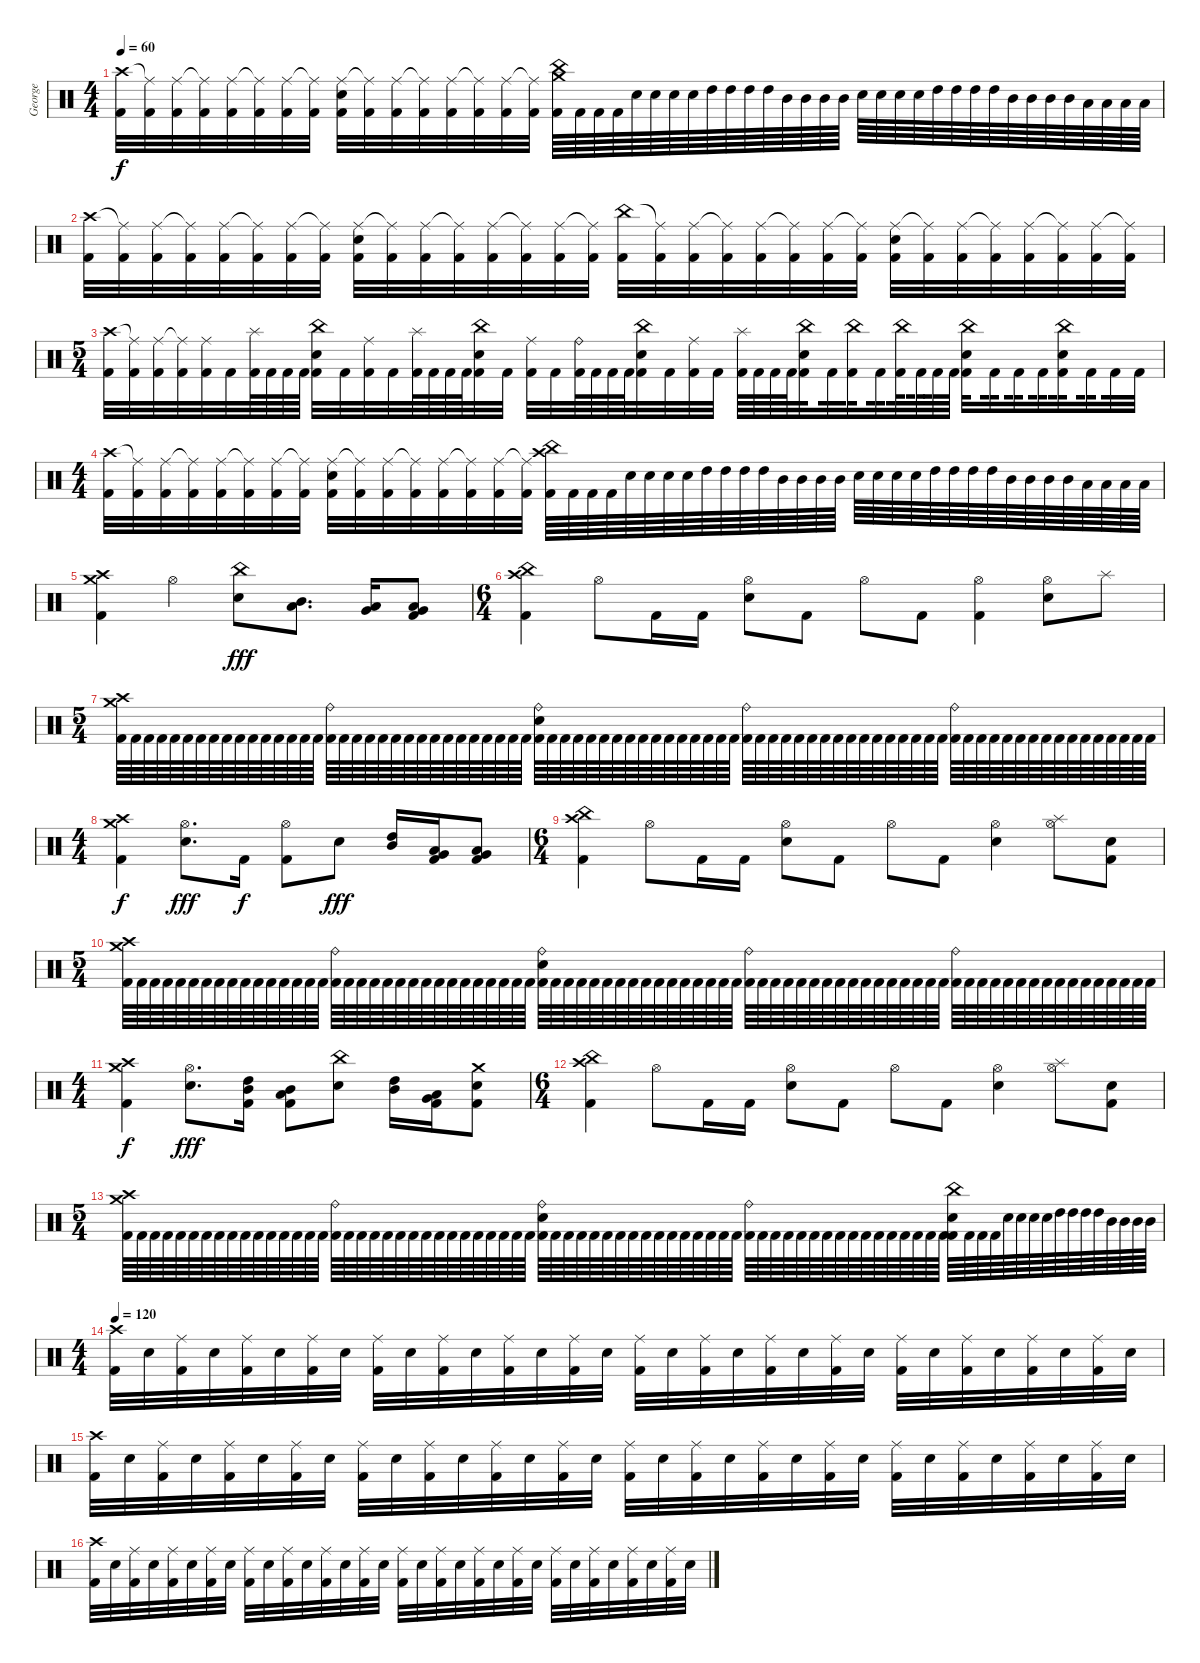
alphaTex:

\track ("George" "George") {instrument percussion}
\staff {score}
\articulation defaults
\ts (4 4)
\tempo 60
\clef neutral
\ks c
("Crash high (hit)" "Kick (hit) 2").32{dy f} ("Ride (middle)"{t} "Kick (hit) 2").32 ("Ride (middle)" "Kick (hit) 2").32 ("Ride (middle)"{t} "Kick (hit) 2").32 ("Ride (middle)" "Kick (hit) 2").32 ("Ride (middle)"{t} "Kick (hit) 2").32 ("Ride (middle)" "Kick (hit) 2").32 ("Ride (middle)"{t} "Kick (hit) 2").32 ("Ride (middle)" "Snare (hit) 2" "Kick (hit) 2").32 ("Ride (middle)"{t} "Kick (hit) 2").32 ("Ride (middle)" "Kick (hit) 2").32 ("Ride (middle)"{t} "Kick (hit) 2").32 ("Ride (middle)" "Kick (hit) 2").32 ("Ride (middle)"{t} "Kick (hit) 2").32 ("Ride (middle)" "Kick (hit) 2").32 ("Ride (middle)"{t} "Kick (hit) 2").32 ("Crash medium (hit)" "China (hit)" "Kick (hit) 2").64 "Kick (hit) 2".64 "Kick (hit) 2".64 "Kick (hit) 2".64 "Snare (hit) 2".64 "Snare (hit) 2".64 "Snare (hit) 2".64 "Snare (hit) 2".64 "High Tom (hit)".64 "High Tom (hit)".64 "High Tom (hit)".64 "High Tom (hit)".64 "Mid Tom (hit)".64 "Mid Tom (hit)".64 "Mid Tom (hit)".64 "Mid Tom (hit)".64 "Snare (hit) 2".64 "Snare (hit) 2".64 "Snare (hit) 2".64 "Snare (hit) 2".64 "High Tom (hit)".64 "High Tom (hit)".64 "High Tom (hit)".64 "High Tom (hit)".64 "Mid Tom (hit)".64 "Mid Tom (hit)".64 "Mid Tom (hit)".64 "Mid Tom (hit)".64 "Low Tom (hit)".64 "Low Tom (hit)".64 "Low Tom (hit)".64 "Low Tom (hit)".64 |
("Crash high (hit)" "Kick (hit) 2").32 ("Ride (middle)"{t} "Kick (hit) 2").32 ("Ride (middle)" "Kick (hit) 2").32 ("Ride (middle)"{t} "Kick (hit) 2").32 ("Ride (middle)" "Kick (hit) 2").32 ("Ride (middle)"{t} "Kick (hit) 2").32 ("Ride (middle)" "Kick (hit) 2").32 ("Ride (middle)"{t} "Kick (hit) 2").32 ("Ride (middle)" "Snare (hit) 2" "Kick (hit) 2").32 ("Ride (middle)"{t} "Kick (hit) 2").32 ("Ride (middle)" "Kick (hit) 2").32 ("Ride (middle)"{t} "Kick (hit) 2").32 ("Ride (middle)" "Kick (hit) 2").32 ("Ride (middle)"{t} "Kick (hit) 2").32 ("Ride (middle)" "Kick (hit) 2").32 ("Ride (middle)"{t} "Kick (hit) 2").32 ("China (hit)" "Kick (hit) 2").32 ("Ride (middle)"{t} "Kick (hit) 2").32 ("Ride (middle)" "Kick (hit) 2").32 ("Ride (middle)"{t} "Kick (hit) 2").32 ("Ride (middle)" "Kick (hit) 2").32 ("Ride (middle)"{t} "Kick (hit) 2").32 ("Ride (middle)" "Kick (hit) 2").32 ("Ride (middle)"{t} "Kick (hit) 2").32 ("Ride (middle)" "Snare (hit) 2" "Kick (hit) 2").32 ("Ride (middle)"{t} "Kick (hit) 2").32 ("Ride (middle)" "Kick (hit) 2").32 ("Ride (middle)"{t} "Kick (hit) 2").32 ("Ride (middle)" "Kick (hit) 2").32 ("Ride (middle)"{t} "Kick (hit) 2").32 ("Ride (middle)" "Kick (hit) 2").32 ("Ride (middle)"{t} "Kick (hit) 2").32 |
\ts (5 4)
("Crash high (hit)" "Kick (hit) 2").32 ("Ride (middle)"{t} "Kick (hit) 2").32 ("Ride (middle)" "Kick (hit) 2").32 ("Ride (middle)"{t} "Kick (hit) 2").32 ("Ride (middle)" "Kick (hit) 2").32 "Kick (hit) 2".32 ("Splash (hit)" "Kick (hit) 2").64 "Kick (hit) 2".64 "Kick (hit) 2".64 "Kick (hit) 2".64 ("China (hit)" "Snare (hit) 2" "Kick (hit) 2").32 "Kick (hit) 2".32 ("Ride (middle)" "Kick (hit) 2").32 "Kick (hit) 2".32 ("Splash (hit)" "Kick (hit) 2").64 "Kick (hit) 2".64 "Kick (hit) 2".64 "Kick (hit) 2".64 ("China (hit)" "Snare (hit) 2" "Kick (hit) 2").32 "Kick (hit) 2".32 ("Ride (middle)" "Kick (hit) 2").32 "Kick (hit) 2".32 ("Ride (bell)" "Kick (hit) 2").64 "Kick (hit) 2".64 "Kick (hit) 2".64 "Kick (hit) 2".64 ("China (hit)" "Snare (hit) 2" "Kick (hit) 2").32 "Kick (hit) 2".32 ("Ride (middle)" "Kick (hit) 2").32 "Kick (hit) 2".32 ("Splash (hit)" "Kick (hit) 2").64 "Kick (hit) 2".64 "Kick (hit) 2".64 "Kick (hit) 2".64{beam splitsecondary} ("China (hit)" "Snare (hit) 2" "Kick (hit) 2").32{beam splitsecondary} "Kick (hit) 2".32{beam splitsecondary} ("China (hit)" "Kick (hit) 2").32{beam splitsecondary} "Kick (hit) 2".32{beam splitsecondary} ("China (hit)" "Kick (hit) 2").64{beam splitsecondary} "Kick (hit) 2".64{beam splitsecondary} "Kick (hit) 2".64 "Kick (hit) 2".64 ("China (hit)" "Snare (hit) 2" "Kick (hit) 2").32{beam splitsecondary} "Kick (hit) 2".32{beam splitsecondary} "Kick (hit) 2".32{beam splitsecondary} "Kick (hit) 2".32{beam splitsecondary} ("China (hit)" "Snare (hit) 2" "Kick (hit) 2").32{beam splitsecondary} "Kick (hit) 2".32{beam splitsecondary} "Kick (hit) 2".32 "Kick (hit) 2".32 |
\ts (4 4)
("Crash high (hit)" "Kick (hit) 2").32 ("Ride (middle)"{t} "Kick (hit) 2").32 ("Ride (middle)" "Kick (hit) 2").32 ("Ride (middle)"{t} "Kick (hit) 2").32 ("Ride (middle)" "Kick (hit) 2").32 ("Ride (middle)"{t} "Kick (hit) 2").32 ("Ride (middle)" "Kick (hit) 2").32 ("Ride (middle)"{t} "Kick (hit) 2").32 ("Ride (middle)" "Snare (hit) 2" "Kick (hit) 2").32 ("Ride (middle)"{t} "Kick (hit) 2").32 ("Ride (middle)" "Kick (hit) 2").32 ("Ride (middle)"{t} "Kick (hit) 2").32 ("Ride (middle)" "Kick (hit) 2").32 ("Ride (middle)"{t} "Kick (hit) 2").32 ("Ride (middle)" "Kick (hit) 2").32 ("Ride (middle)"{t} "Kick (hit) 2").32 ("China (hit)" "Crash high (hit)" "Kick (hit) 2").64 "Kick (hit) 2".64 "Kick (hit) 2".64 "Kick (hit) 2".64 "Snare (hit) 2".64 "Snare (hit) 2".64 "Snare (hit) 2".64 "Snare (hit) 2".64 "High Tom (hit)".64 "High Tom (hit)".64 "High Tom (hit)".64 "High Tom (hit)".64 "Mid Tom (hit)".64 "Mid Tom (hit)".64 "Mid Tom (hit)".64 "Mid Tom (hit)".64 "Snare (hit) 2".64 "Snare (hit) 2".64 "Snare (hit) 2".64 "Snare (hit) 2".64 "High Tom (hit)".64 "High Tom (hit)".64 "High Tom (hit)".64 "High Tom (hit)".64 "Mid Tom (hit)".64 "Mid Tom (hit)".64 "Mid Tom (hit)".64 "Mid Tom (hit)".64 "Low Tom (hit)".64 "Low Tom (hit)".64 "Low Tom (hit)".64 "Low Tom (hit)".64 |
("Crash medium (hit)" "Crash high (hit)" "Kick (hit) 2").4 "Hi-Hat (open)".4 ("Snare (hit) 2" "China (hit)").8{dy fff} ("Mid Tom (hit)" "Low Tom (hit)").8{d} ("Low Floor Tom (hit)" "Very Low Tom (hit)").16 ("Very Low Tom (hit)" "Low Floor Tom (hit)" "Kick (hit) 2").8 |
\ts (6 4)
("Crash high (hit)" "China (hit)" "Kick (hit) 2").4 "Hi-Hat (open)".8 "Kick (hit) 2".16 "Kick (hit) 2".16 ("Hi-Hat (open)" "Snare (hit) 2").8 "Kick (hit) 2".8 "Hi-Hat (open)".8 "Kick (hit) 2".8 ("Hi-Hat (open)" "Kick (hit) 2").4 ("Hi-Hat (open)" "Snare (hit) 2").8 "Splash (hit)".8 |
\ts (5 4)
("Crash high (hit)" "Crash medium (hit)" "Kick (hit) 2").64 "Kick (hit) 2".64 "Kick (hit) 2".64 "Kick (hit) 2".64 "Kick (hit) 2".64 "Kick (hit) 2".64 "Kick (hit) 2".64 "Kick (hit) 2".64 "Kick (hit) 2".64 "Kick (hit) 2".64 "Kick (hit) 2".64 "Kick (hit) 2".64 "Kick (hit) 2".64 "Kick (hit) 2".64 "Kick (hit) 2".64 "Kick (hit) 2".64 ("Ride (bell)" "Kick (hit) 2").64 "Kick (hit) 2".64 "Kick (hit) 2".64 "Kick (hit) 2".64 "Kick (hit) 2".64 "Kick (hit) 2".64 "Kick (hit) 2".64 "Kick (hit) 2".64 "Kick (hit) 2".64 "Kick (hit) 2".64 "Kick (hit) 2".64 "Kick (hit) 2".64 "Kick (hit) 2".64 "Kick (hit) 2".64 "Kick (hit) 2".64 "Kick (hit) 2".64 ("Ride (bell)" "Snare (hit) 2" "Kick (hit) 2").64 "Kick (hit) 2".64 "Kick (hit) 2".64 "Kick (hit) 2".64 "Kick (hit) 2".64 "Kick (hit) 2".64 "Kick (hit) 2".64 "Kick (hit) 2".64 "Kick (hit) 2".64 "Kick (hit) 2".64 "Kick (hit) 2".64 "Kick (hit) 2".64 "Kick (hit) 2".64 "Kick (hit) 2".64 "Kick (hit) 2".64 "Kick (hit) 2".64 ("Ride (bell)" "Kick (hit) 2").64 "Kick (hit) 2".64 "Kick (hit) 2".64 "Kick (hit) 2".64 "Kick (hit) 2".64 "Kick (hit) 2".64 "Kick (hit) 2".64 "Kick (hit) 2".64 "Kick (hit) 2".64 "Kick (hit) 2".64 "Kick (hit) 2".64 "Kick (hit) 2".64 "Kick (hit) 2".64 "Kick (hit) 2".64 "Kick (hit) 2".64 "Kick (hit) 2".64 ("Ride (bell)" "Kick (hit) 2").64 "Kick (hit) 2".64 "Kick (hit) 2".64 "Kick (hit) 2".64 "Kick (hit) 2".64 "Kick (hit) 2".64 "Kick (hit) 2".64 "Kick (hit) 2".64 "Kick (hit) 2".64 "Kick (hit) 2".64 "Kick (hit) 2".64 "Kick (hit) 2".64 "Kick (hit) 2".64 "Kick (hit) 2".64 "Kick (hit) 2".64 "Kick (hit) 2".64 |
\ts (4 4)
("Crash medium (hit)" "Crash high (hit)" "Kick (hit) 2").4{dy f} ("Hi-Hat (open)" "Snare (hit) 2").8{d dy fff} "Kick (hit) 2".16{dy f} ("Hi-Hat (open)" "Kick (hit) 2").8 "Snare (hit) 2".8{dy fff} ("High Tom (hit)" "Mid Tom (hit)").16 ("Very Low Tom (hit)" "Low Tom (hit)" "Kick (hit) 2").16 ("Very Low Tom (hit)" "Low Tom (hit)" "Kick (hit) 2").8 |
\ts (6 4)
("Crash high (hit)" "China (hit)" "Kick (hit) 2").4 "Hi-Hat (open)".8 "Kick (hit) 2".16 "Kick (hit) 2".16 ("Hi-Hat (open)" "Snare (hit) 2").8 "Kick (hit) 2".8 "Hi-Hat (open)".8 "Kick (hit) 2".8 ("Hi-Hat (open)" "Snare (hit) 2").4 ("Hi-Hat (open)" "Splash (hit)").8 ("Snare (hit)" "Kick (hit) 2").8 |
\ts (5 4)
("Crash high (hit)" "Crash medium (hit)" "Kick (hit) 2").64 "Kick (hit) 2".64 "Kick (hit) 2".64 "Kick (hit) 2".64 "Kick (hit) 2".64 "Kick (hit) 2".64 "Kick (hit) 2".64 "Kick (hit) 2".64 "Kick (hit) 2".64 "Kick (hit) 2".64 "Kick (hit) 2".64 "Kick (hit) 2".64 "Kick (hit) 2".64 "Kick (hit) 2".64 "Kick (hit) 2".64 "Kick (hit) 2".64 ("Ride (bell)" "Kick (hit) 2").64 "Kick (hit) 2".64 "Kick (hit) 2".64 "Kick (hit) 2".64 "Kick (hit) 2".64 "Kick (hit) 2".64 "Kick (hit) 2".64 "Kick (hit) 2".64 "Kick (hit) 2".64 "Kick (hit) 2".64 "Kick (hit) 2".64 "Kick (hit) 2".64 "Kick (hit) 2".64 "Kick (hit) 2".64 "Kick (hit) 2".64 "Kick (hit) 2".64 ("Ride (bell)" "Snare (hit) 2" "Kick (hit) 2").64 "Kick (hit) 2".64 "Kick (hit) 2".64 "Kick (hit) 2".64 "Kick (hit) 2".64 "Kick (hit) 2".64 "Kick (hit) 2".64 "Kick (hit) 2".64 "Kick (hit) 2".64 "Kick (hit) 2".64 "Kick (hit) 2".64 "Kick (hit) 2".64 "Kick (hit) 2".64 "Kick (hit) 2".64 "Kick (hit) 2".64 "Kick (hit) 2".64 ("Ride (bell)" "Kick (hit) 2").64 "Kick (hit) 2".64 "Kick (hit) 2".64 "Kick (hit) 2".64 "Kick (hit) 2".64 "Kick (hit) 2".64 "Kick (hit) 2".64 "Kick (hit) 2".64 "Kick (hit) 2".64 "Kick (hit) 2".64 "Kick (hit) 2".64 "Kick (hit) 2".64 "Kick (hit) 2".64 "Kick (hit) 2".64 "Kick (hit) 2".64 "Kick (hit) 2".64 ("Ride (bell)" "Kick (hit) 2").64 "Kick (hit) 2".64 "Kick (hit) 2".64 "Kick (hit) 2".64 "Kick (hit) 2".64 "Kick (hit) 2".64 "Kick (hit) 2".64 "Kick (hit) 2".64 "Kick (hit) 2".64 "Kick (hit) 2".64 "Kick (hit) 2".64 "Kick (hit) 2".64 "Kick (hit) 2".64 "Kick (hit) 2".64 "Kick (hit) 2".64 "Kick (hit) 2".64 |
\ts (4 4)
("Crash medium (hit)" "Crash high (hit)" "Kick (hit) 2").4{dy f} ("Hi-Hat (open)" "Snare (hit) 2").8{d dy fff} ("Mid Tom (hit)" "High Tom (hit)" "Kick (hit) 2").16 ("Low Tom (hit)" "Mid Tom (hit)" "Kick (hit) 2").8 ("China (hit)" "Snare (hit) 2").8 ("High Tom (hit)" "Mid Tom (hit)").16 ("Very Low Tom (hit)" "Low Tom (hit)" "Kick (hit) 2").16 ("Snare (hit) 2" "Crash medium (hit)" "Kick (hit) 2").8 |
\ts (6 4)
("Crash high (hit)" "China (hit)" "Kick (hit) 2").4 "Hi-Hat (open)".8 "Kick (hit) 2".16 "Kick (hit) 2".16 ("Hi-Hat (open)" "Snare (hit) 2").8 "Kick (hit) 2".8 "Hi-Hat (open)".8 "Kick (hit) 2".8 ("Hi-Hat (open)" "Snare (hit) 2").4 ("Hi-Hat (open)" "Splash (hit)").8 ("Snare (hit)" "Kick (hit) 2").8 |
\ts (5 4)
("Crash high (hit)" "Crash medium (hit)" "Kick (hit) 2").64 "Kick (hit) 2".64 "Kick (hit) 2".64 "Kick (hit) 2".64 "Kick (hit) 2".64 "Kick (hit) 2".64 "Kick (hit) 2".64 "Kick (hit) 2".64 "Kick (hit) 2".64 "Kick (hit) 2".64 "Kick (hit) 2".64 "Kick (hit) 2".64 "Kick (hit) 2".64 "Kick (hit) 2".64 "Kick (hit) 2".64 "Kick (hit) 2".64 ("Ride (bell)" "Kick (hit) 2").64 "Kick (hit) 2".64 "Kick (hit) 2".64 "Kick (hit) 2".64 "Kick (hit) 2".64 "Kick (hit) 2".64 "Kick (hit) 2".64 "Kick (hit) 2".64 "Kick (hit) 2".64 "Kick (hit) 2".64 "Kick (hit) 2".64 "Kick (hit) 2".64 "Kick (hit) 2".64 "Kick (hit) 2".64 "Kick (hit) 2".64 "Kick (hit) 2".64 ("Ride (bell)" "Snare (hit) 2" "Kick (hit) 2").64 "Kick (hit) 2".64 "Kick (hit) 2".64 "Kick (hit) 2".64 "Kick (hit) 2".64 "Kick (hit) 2".64 "Kick (hit) 2".64 "Kick (hit) 2".64 "Kick (hit) 2".64 "Kick (hit) 2".64 "Kick (hit) 2".64 "Kick (hit) 2".64 "Kick (hit) 2".64 "Kick (hit) 2".64 "Kick (hit) 2".64 "Kick (hit) 2".64 ("Ride (bell)" "Kick (hit) 2").64 "Kick (hit) 2".64 "Kick (hit) 2".64 "Kick (hit) 2".64 "Kick (hit) 2".64 "Kick (hit) 2".64 "Kick (hit) 2".64 "Kick (hit) 2".64 "Kick (hit) 2".64 "Kick (hit) 2".64 "Kick (hit) 2".64 "Kick (hit) 2".64 "Kick (hit) 2".64 "Kick (hit) 2".64 "Kick (hit) 2".64 "Kick (hit) 2".64 ("China (hit)" "Snare (hit) 2" "Kick (hit) 2").64 "Kick (hit) 2".64 "Kick (hit) 2".64 "Kick (hit) 2".64 "Snare (hit) 2".64 "Snare (hit) 2".64 "Snare (hit) 2".64 "Snare (hit) 2".64 "High Tom (hit)".64 "High Tom (hit)".64 "High Tom (hit)".64 "High Tom (hit)".64 "Mid Tom (hit)".64 "Mid Tom (hit)".64 "Mid Tom (hit)".64 "Mid Tom (hit)".64 |
\ts (4 4)
\tempo 120
("Crash high (hit)" "Kick (hit) 2").32 "Snare (hit) 2".32 ("Ride (middle)" "Kick (hit) 2").32 "Snare (hit) 2".32 ("Ride (middle)" "Kick (hit) 2").32 "Snare (hit) 2".32 ("Ride (middle)" "Kick (hit) 2").32 "Snare (hit) 2".32 ("Ride (middle)" "Kick (hit) 2").32 "Snare (hit) 2".32 ("Ride (middle)" "Kick (hit) 2").32 "Snare (hit) 2".32 ("Ride (middle)" "Kick (hit) 2").32 "Snare (hit) 2".32 ("Ride (middle)" "Kick (hit) 2").32 "Snare (hit) 2".32 ("Ride (middle)" "Kick (hit) 2").32 "Snare (hit) 2".32 ("Ride (middle)" "Kick (hit) 2").32 "Snare (hit) 2".32 ("Ride (middle)" "Kick (hit) 2").32 "Snare (hit) 2".32 ("Ride (middle)" "Kick (hit) 2").32 "Snare (hit) 2".32 ("Ride (middle)" "Kick (hit) 2").32 "Snare (hit) 2".32 ("Ride (middle)" "Kick (hit) 2").32 "Snare (hit) 2".32 ("Ride (middle)" "Kick (hit) 2").32 "Snare (hit) 2".32 ("Ride (middle)" "Kick (hit) 2").32 "Snare (hit) 2".32 |
("Crash high (hit)" "Kick (hit) 2").32 "Snare (hit) 2".32 ("Ride (middle)" "Kick (hit) 2").32 "Snare (hit) 2".32 ("Ride (middle)" "Kick (hit) 2").32 "Snare (hit) 2".32 ("Ride (middle)" "Kick (hit) 2").32 "Snare (hit) 2".32 ("Ride (middle)" "Kick (hit) 2").32 "Snare (hit) 2".32 ("Ride (middle)" "Kick (hit) 2").32 "Snare (hit) 2".32 ("Ride (middle)" "Kick (hit) 2").32 "Snare (hit) 2".32 ("Ride (middle)" "Kick (hit) 2").32 "Snare (hit) 2".32 ("Ride (middle)" "Kick (hit) 2").32 "Snare (hit) 2".32 ("Ride (middle)" "Kick (hit) 2").32 "Snare (hit) 2".32 ("Ride (middle)" "Kick (hit) 2").32 "Snare (hit) 2".32 ("Ride (middle)" "Kick (hit) 2").32 "Snare (hit) 2".32 ("Ride (middle)" "Kick (hit) 2").32 "Snare (hit) 2".32 ("Ride (middle)" "Kick (hit) 2").32 "Snare (hit) 2".32 ("Ride (middle)" "Kick (hit) 2").32 "Snare (hit) 2".32 ("Ride (middle)" "Kick (hit) 2").32 "Snare (hit) 2".32 |
("Crash high (hit)" "Kick (hit) 2").32 "Snare (hit) 2".32 ("Ride (middle)" "Kick (hit) 2").32 "Snare (hit) 2".32 ("Ride (middle)" "Kick (hit) 2").32 "Snare (hit) 2".32 ("Ride (middle)" "Kick (hit) 2").32 "Snare (hit) 2".32 ("Ride (middle)" "Kick (hit) 2").32 "Snare (hit) 2".32 ("Ride (middle)" "Kick (hit) 2").32 "Snare (hit) 2".32 ("Ride (middle)" "Kick (hit) 2").32 "Snare (hit) 2".32 ("Ride (middle)" "Kick (hit) 2").32 "Snare (hit) 2".32 ("Ride (middle)" "Kick (hit) 2").32 "Snare (hit) 2".32 ("Ride (middle)" "Kick (hit) 2").32 "Snare (hit) 2".32 ("Ride (middle)" "Kick (hit) 2").32 "Snare (hit) 2".32 ("Ride (middle)" "Kick (hit) 2").32 "Snare (hit) 2".32 ("Ride (middle)" "Kick (hit) 2").32 "Snare (hit) 2".32 ("Ride (middle)" "Kick (hit) 2").32 "Snare (hit) 2".32 ("Ride (middle)" "Kick (hit) 2").32 "Snare (hit) 2".32 ("Ride (middle)" "Kick (hit) 2").32 "Snare (hit) 2".32
